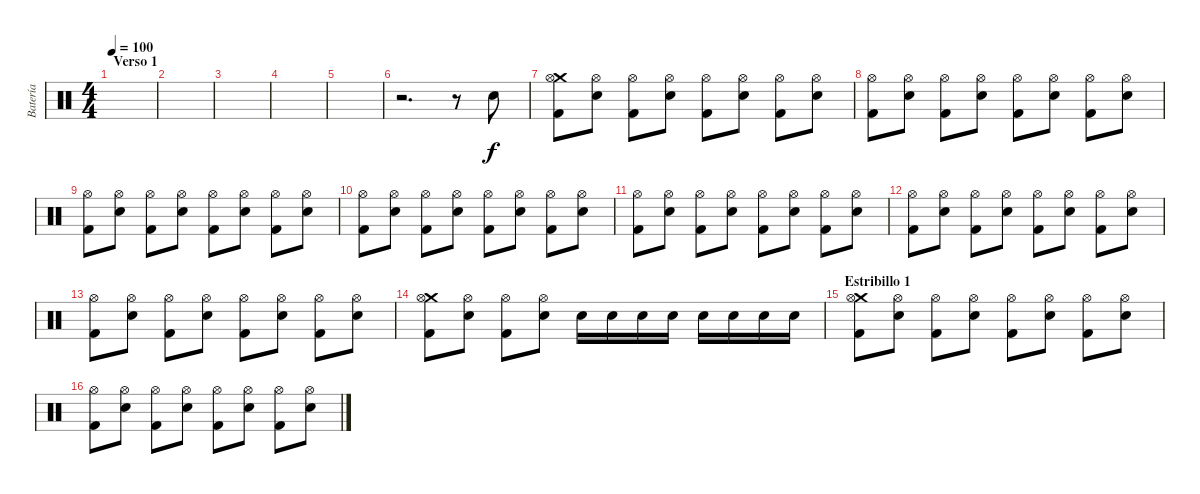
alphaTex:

\track ("Batería" "Batería") {instrument percussion}
\staff {score}
\articulation defaults
\ts (4 4)
\section ("" "Verso 1")
\tempo 100
\clef neutral
\ks c
|
|
|
|
|
r.2{d} r.8 "Snare (hit) 2".8 |
("Crash medium (hit)" "Hi-Hat (open)" "Kick (hit) 2").8 ("Hi-Hat (open)" "Snare (hit) 2").8 ("Hi-Hat (open)" "Kick (hit) 2").8 ("Hi-Hat (open)" "Snare (hit) 2").8 ("Hi-Hat (open)" "Kick (hit) 2").8 ("Hi-Hat (open)" "Snare (hit) 2").8 ("Hi-Hat (open)" "Kick (hit) 2").8 ("Hi-Hat (open)" "Snare (hit) 2").8 |
("Hi-Hat (open)" "Kick (hit) 2").8 ("Hi-Hat (open)" "Snare (hit) 2").8 ("Hi-Hat (open)" "Kick (hit) 2").8 ("Hi-Hat (open)" "Snare (hit) 2").8 ("Hi-Hat (open)" "Kick (hit) 2").8 ("Hi-Hat (open)" "Snare (hit) 2").8 ("Hi-Hat (open)" "Kick (hit) 2").8 ("Hi-Hat (open)" "Snare (hit) 2").8 |
("Hi-Hat (open)" "Kick (hit) 2").8 ("Hi-Hat (open)" "Snare (hit) 2").8 ("Hi-Hat (open)" "Kick (hit) 2").8 ("Hi-Hat (open)" "Snare (hit) 2").8 ("Hi-Hat (open)" "Kick (hit) 2").8 ("Hi-Hat (open)" "Snare (hit) 2").8 ("Hi-Hat (open)" "Kick (hit) 2").8 ("Hi-Hat (open)" "Snare (hit) 2").8 |
("Hi-Hat (open)" "Kick (hit) 2").8 ("Hi-Hat (open)" "Snare (hit) 2").8 ("Hi-Hat (open)" "Kick (hit) 2").8 ("Hi-Hat (open)" "Snare (hit) 2").8 ("Hi-Hat (open)" "Kick (hit) 2").8 ("Hi-Hat (open)" "Snare (hit) 2").8 ("Hi-Hat (open)" "Kick (hit) 2").8 ("Hi-Hat (open)" "Snare (hit) 2").8 |
("Hi-Hat (open)" "Kick (hit) 2").8 ("Hi-Hat (open)" "Snare (hit) 2").8 ("Hi-Hat (open)" "Kick (hit) 2").8 ("Hi-Hat (open)" "Snare (hit) 2").8 ("Hi-Hat (open)" "Kick (hit) 2").8 ("Hi-Hat (open)" "Snare (hit) 2").8 ("Hi-Hat (open)" "Kick (hit) 2").8 ("Hi-Hat (open)" "Snare (hit) 2").8 |
("Hi-Hat (open)" "Kick (hit) 2").8 ("Hi-Hat (open)" "Snare (hit) 2").8 ("Hi-Hat (open)" "Kick (hit) 2").8 ("Hi-Hat (open)" "Snare (hit) 2").8 ("Hi-Hat (open)" "Kick (hit) 2").8 ("Hi-Hat (open)" "Snare (hit) 2").8 ("Hi-Hat (open)" "Kick (hit) 2").8 ("Hi-Hat (open)" "Snare (hit) 2").8 |
("Hi-Hat (open)" "Kick (hit) 2").8 ("Hi-Hat (open)" "Snare (hit) 2").8 ("Hi-Hat (open)" "Kick (hit) 2").8 ("Hi-Hat (open)" "Snare (hit) 2").8 ("Hi-Hat (open)" "Kick (hit) 2").8 ("Hi-Hat (open)" "Snare (hit) 2").8 ("Hi-Hat (open)" "Kick (hit) 2").8 ("Hi-Hat (open)" "Snare (hit) 2").8 |
("Crash medium (hit)" "Hi-Hat (open)" "Kick (hit) 2").8 ("Hi-Hat (open)" "Snare (hit) 2").8 ("Hi-Hat (open)" "Kick (hit) 2").8 ("Hi-Hat (open)" "Snare (hit) 2").8 "Snare (hit) 2".16 "Snare (hit) 2".16 "Snare (hit) 2".16 "Snare (hit) 2".16 "Snare (hit) 2".16 "Snare (hit) 2".16 "Snare (hit) 2".16 "Snare (hit) 2".16 |
\section ("" "Estribillo 1")
("Crash medium (hit)" "Hi-Hat (open)" "Kick (hit) 2").8 ("Hi-Hat (open)" "Snare (hit) 2").8 ("Hi-Hat (open)" "Kick (hit) 2").8 ("Hi-Hat (open)" "Snare (hit) 2").8 ("Hi-Hat (open)" "Kick (hit) 2").8 ("Hi-Hat (open)" "Snare (hit) 2").8 ("Hi-Hat (open)" "Kick (hit) 2").8 ("Hi-Hat (open)" "Snare (hit) 2").8 |
("Hi-Hat (open)" "Kick (hit) 2").8 ("Hi-Hat (open)" "Snare (hit) 2").8 ("Hi-Hat (open)" "Kick (hit) 2").8 ("Hi-Hat (open)" "Snare (hit) 2").8 ("Hi-Hat (open)" "Kick (hit) 2").8 ("Hi-Hat (open)" "Snare (hit) 2").8 ("Hi-Hat (open)" "Kick (hit) 2").8 ("Hi-Hat (open)" "Snare (hit) 2").8
